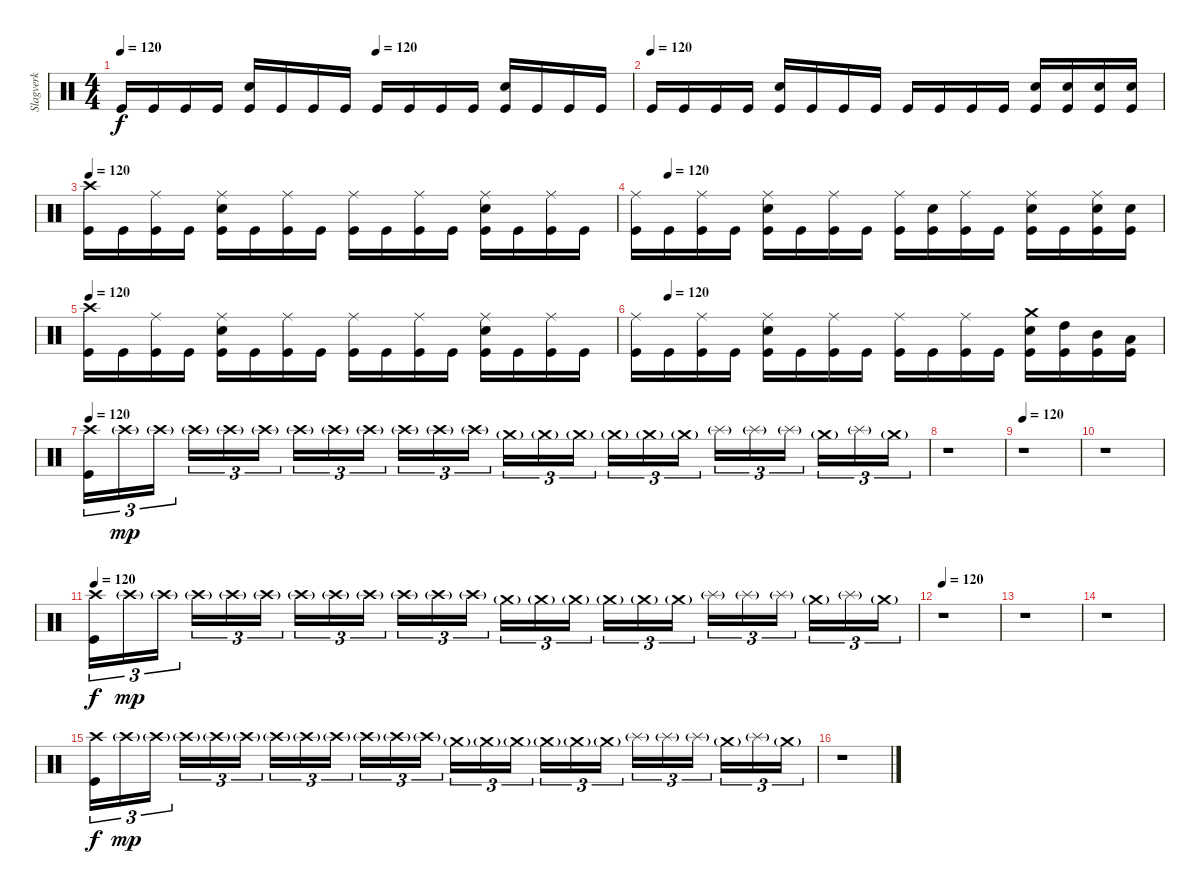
\track ("Slagverk" "Slagverk") {instrument percussion}
\staff {score}
\articulation defaults
\ts (4 4)
\tempo 120
\tempo (120 0.5)
\clef neutral
\ks c "Kick (hit)".16{dy f} "Kick (hit)".16 "Kick (hit)".16 "Kick (hit)".16
("Electric Snare (hit)" "Kick (hit)").16 "Kick (hit)".16 "Kick (hit)".16 "Kick (hit)".16 "Kick (hit)".16 "Kick (hit)".16 "Kick (hit)".16 "Kick (hit)".16 ("Electric Snare (hit)" "Kick (hit)").16 "Kick (hit)".16 "Kick (hit)".16 "Kick (hit)".16 |
\tempo (120)
"Kick (hit)".16 "Kick (hit)".16 "Kick (hit)".16 "Kick (hit)".16 ("Electric Snare (hit)" "Kick (hit)").16 "Kick (hit)".16 "Kick (hit)".16 "Kick (hit)".16 "Kick (hit)".16 "Kick (hit)".16 "Kick (hit)".16 "Kick (hit)".16 ("Electric Snare (hit)" "Kick (hit)").16 ("Electric Snare (hit)" "Kick (hit)").16 ("Electric Snare (hit)" "Kick (hit)").16 ("Electric Snare (hit)" "Kick (hit)").16 |
\tempo 120
("Crash high (hit)" "Kick (hit)").16 "Kick (hit)".16 ("Ride (middle)" "Kick (hit)").16 "Kick (hit)".16 ("Ride (middle)" "Electric Snare (hit)" "Kick (hit)").16 "Kick (hit)".16 ("Ride (middle)" "Kick (hit)").16 "Kick (hit)".16 ("Ride (middle)" "Kick (hit)").16 "Kick (hit)".16 ("Ride (middle)" "Kick (hit)").16 "Kick (hit)".16 ("Ride (middle)" "Electric Snare (hit)" "Kick (hit)").16 "Kick (hit)".16 ("Ride (middle)" "Kick (hit)").16 "Kick (hit)".16 |
\tempo (120 0.0625)
("Ride (middle)" "Kick (hit)").16 "Kick (hit)".16 ("Ride (middle)" "Kick (hit)").16 "Kick (hit)".16 ("Ride (middle)" "Electric Snare (hit)" "Kick (hit)").16 "Kick (hit)".16 ("Ride (middle)" "Kick (hit)").16 "Kick (hit)".16 ("Ride (middle)" "Kick (hit)").16 ("Electric Snare (hit)" "Kick (hit)").16 ("Ride (middle)" "Kick (hit)").16 "Kick (hit)".16 ("Ride (middle)" "Electric Snare (hit)" "Kick (hit)").16 "Kick (hit)".16 ("Ride (middle)" "Electric Snare (hit)" "Kick (hit)").16 ("Electric Snare (hit)" "Kick (hit)").16 |
\tempo 120
("Crash high (hit)" "Kick (hit)").16 "Kick (hit)".16 ("Ride (middle)" "Kick (hit)").16 "Kick (hit)".16 ("Ride (middle)" "Electric Snare (hit)" "Kick (hit)").16 "Kick (hit)".16 ("Ride (middle)" "Kick (hit)").16 "Kick (hit)".16 ("Ride (middle)" "Kick (hit)").16 "Kick (hit)".16 ("Ride (middle)" "Kick (hit)").16 "Kick (hit)".16 ("Ride (middle)" "Electric Snare (hit)" "Kick (hit)").16 "Kick (hit)".16 ("Ride (middle)" "Kick (hit)").16 "Kick (hit)".16 |
\tempo (120 0.0625)
("Ride (middle)" "Kick (hit)").16 "Kick (hit)".16 ("Ride (middle)" "Kick (hit)").16 "Kick (hit)".16 ("Ride (middle)" "Electric Snare (hit)" "Kick (hit)").16 "Kick (hit)".16 ("Ride (middle)" "Kick (hit)").16 "Kick (hit)".16 ("Ride (middle)" "Kick (hit)").16 "Kick (hit)".16 ("Ride (middle)" "Kick (hit)").16 "Kick (hit)".16 ("Crash medium (hit)" "Electric Snare (hit)" "Kick (hit)").16 ("High Tom (hit)" "Kick (hit)").16 ("Mid Tom (hit)" "Kick (hit)").16 ("Low Tom (hit)" "Kick (hit)").16 |
\tempo 120
("Crash high (hit)" "Kick (hit)").16{tu (3 2) volume 13} "Crash high (hit)"{g}.16{tu (3 2) dy mp} "Crash high (hit)"{g}.16{tu (3 2)} "Crash high (hit)"{g}.16{tu (3 2)} "Crash high (hit)"{g}.16{tu (3 2)} "Crash high (hit)"{g}.16{tu (3 2)} "Crash high (hit)"{g}.16{tu (3 2)} "Crash high (hit)"{g}.16{tu (3 2)} "Crash high (hit)"{g}.16{tu (3 2)} "Crash high (hit)"{g}.16{tu (3 2)} "Crash high (hit)"{g}.16{tu (3 2)} "Crash high (hit)"{g}.16{tu (3 2)} "Crash medium (hit)"{g}.16{tu (3 2)} "Crash medium (hit)"{g}.16{tu (3 2)} "Crash medium (hit)"{g}.16{tu (3 2)} "Crash medium (hit)"{g}.16{tu (3 2)} "Crash medium (hit)"{g}.16{tu (3 2)} "Crash medium (hit)"{g}.16{tu (3 2)} "Splash (hit)"{g}.16{tu (3 2)} "Splash (hit)"{g}.16{tu (3 2)} "Splash (hit)"{g}.16{tu (3 2)} "Crash medium (hit)"{g}.16{tu (3 2)} "Splash (hit)"{g}.16{tu (3 2)} "Crash medium (hit)"{g}.16{tu (3 2)} |
r.1 |
\tempo 120
r.1 |
r.1 |
\tempo 120
("Crash high (hit)" "Kick (hit)").16{tu (3 2) dy f volume 13} "Crash high (hit)"{g}.16{tu (3 2) dy mp} "Crash high (hit)"{g}.16{tu (3 2)} "Crash high (hit)"{g}.16{tu (3 2)} "Crash high (hit)"{g}.16{tu (3 2)} "Crash high (hit)"{g}.16{tu (3 2)} "Crash high (hit)"{g}.16{tu (3 2)} "Crash high (hit)"{g}.16{tu (3 2)} "Crash high (hit)"{g}.16{tu (3 2)} "Crash high (hit)"{g}.16{tu (3 2)} "Crash high (hit)"{g}.16{tu (3 2)} "Crash high (hit)"{g}.16{tu (3 2)} "Crash medium (hit)"{g}.16{tu (3 2)} "Crash medium (hit)"{g}.16{tu (3 2)} "Crash medium (hit)"{g}.16{tu (3 2)} "Crash medium (hit)"{g}.16{tu (3 2)} "Crash medium (hit)"{g}.16{tu (3 2)} "Crash medium (hit)"{g}.16{tu (3 2)} "Splash (hit)"{g}.16{tu (3 2)} "Splash (hit)"{g}.16{tu (3 2)} "Splash (hit)"{g}.16{tu (3 2)} "Crash medium (hit)"{g}.16{tu (3 2)} "Splash (hit)"{g}.16{tu (3 2)} "Crash medium (hit)"{g}.16{tu (3 2)} |
\tempo 120
r.1 |
r.1 |
r.1 |
("Crash high (hit)" "Kick (hit)").16{tu (3 2) dy f volume 13} "Crash high (hit)"{g}.16{tu (3 2) dy mp} "Crash high (hit)"{g}.16{tu (3 2)} "Crash high (hit)"{g}.16{tu (3 2)} "Crash high (hit)"{g}.16{tu (3 2)} "Crash high (hit)"{g}.16{tu (3 2)} "Crash high (hit)"{g}.16{tu (3 2)} "Crash high (hit)"{g}.16{tu (3 2)} "Crash high (hit)"{g}.16{tu (3 2)} "Crash high (hit)"{g}.16{tu (3 2)} "Crash high (hit)"{g}.16{tu (3 2)} "Crash high (hit)"{g}.16{tu (3 2)} "Crash medium (hit)"{g}.16{tu (3 2)} "Crash medium (hit)"{g}.16{tu (3 2)} "Crash medium (hit)"{g}.16{tu (3 2)} "Crash medium (hit)"{g}.16{tu (3 2)} "Crash medium (hit)"{g}.16{tu (3 2)} "Crash medium (hit)"{g}.16{tu (3 2)} "Splash (hit)"{g}.16{tu (3 2)} "Splash (hit)"{g}.16{tu (3 2)} "Splash (hit)"{g}.16{tu (3 2)} "Crash medium (hit)"{g}.16{tu (3 2)} "Splash (hit)"{g}.16{tu (3 2)} "Crash medium (hit)"{g}.16{tu (3 2)} |
r.1
